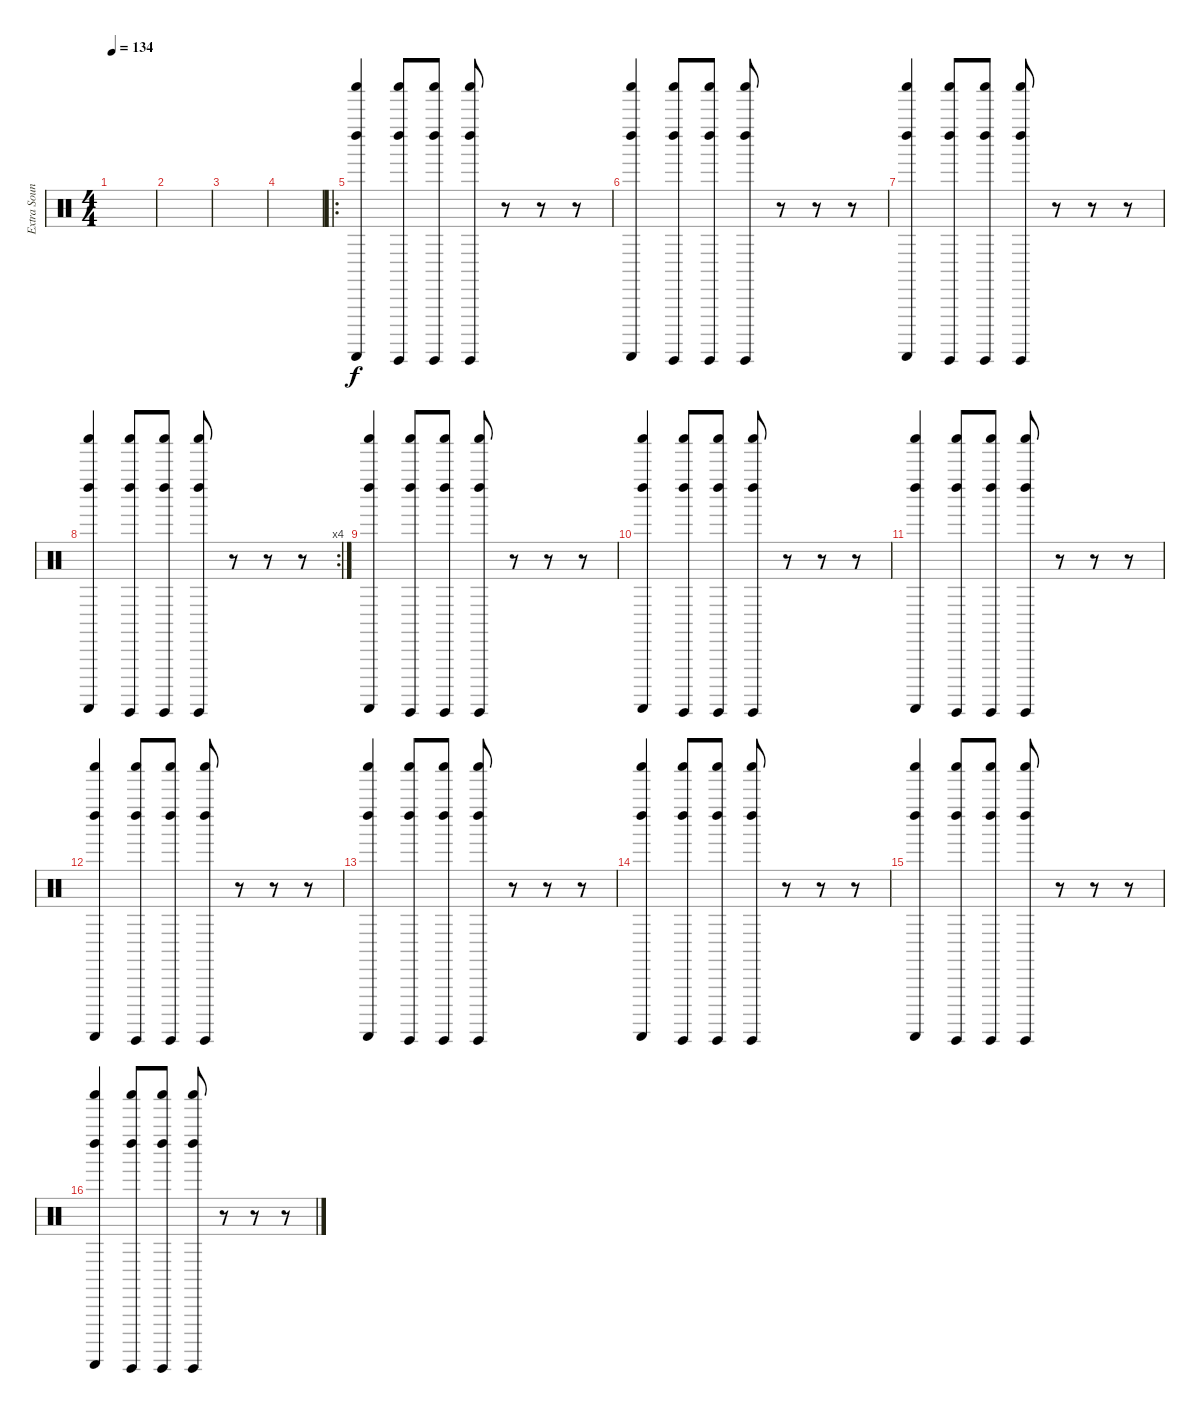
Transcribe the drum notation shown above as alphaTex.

\track ("Extra Sounds" "Extra Soun") {instrument percussion}
\staff {score}
\articulation defaults
\ts (4 4)
\tempo 134
\clef neutral
\ks c
|
|
|
|
\ro
("Shaker (hit)" "Left Maraca (hit)" "Guiro (scrap-return)").4 ("Shaker (hit)" "Left Maraca (hit)" "Guiro (hit)").8 ("Shaker (hit)" "Left Maraca (hit)" "Guiro (hit)").8 ("Shaker (hit)" "Left Maraca (hit)" "Guiro (hit)").8 r.8 r.8 r.8 |
("Shaker (hit)" "Left Maraca (hit)" "Guiro (scrap-return)").4 ("Shaker (hit)" "Left Maraca (hit)" "Guiro (hit)").8 ("Shaker (hit)" "Left Maraca (hit)" "Guiro (hit)").8 ("Shaker (hit)" "Left Maraca (hit)" "Guiro (hit)").8 r.8 r.8 r.8 |
("Shaker (hit)" "Left Maraca (hit)" "Guiro (scrap-return)").4 ("Shaker (hit)" "Left Maraca (hit)" "Guiro (hit)").8 ("Shaker (hit)" "Left Maraca (hit)" "Guiro (hit)").8 ("Shaker (hit)" "Left Maraca (hit)" "Guiro (hit)").8 r.8 r.8 r.8 |
\rc 4
("Shaker (hit)" "Left Maraca (hit)" "Guiro (scrap-return)").4 ("Shaker (hit)" "Left Maraca (hit)" "Guiro (hit)").8 ("Shaker (hit)" "Left Maraca (hit)" "Guiro (hit)").8 ("Shaker (hit)" "Left Maraca (hit)" "Guiro (hit)").8 r.8 r.8 r.8 |
("Shaker (hit)" "Left Maraca (hit)" "Guiro (scrap-return)").4 ("Shaker (hit)" "Left Maraca (hit)" "Guiro (hit)").8 ("Shaker (hit)" "Left Maraca (hit)" "Guiro (hit)").8 ("Shaker (hit)" "Left Maraca (hit)" "Guiro (hit)").8 r.8 r.8 r.8 |
("Shaker (hit)" "Left Maraca (hit)" "Guiro (scrap-return)").4 ("Shaker (hit)" "Left Maraca (hit)" "Guiro (hit)").8 ("Shaker (hit)" "Left Maraca (hit)" "Guiro (hit)").8 ("Shaker (hit)" "Left Maraca (hit)" "Guiro (hit)").8 r.8 r.8 r.8 |
("Shaker (hit)" "Left Maraca (hit)" "Guiro (scrap-return)").4 ("Shaker (hit)" "Left Maraca (hit)" "Guiro (hit)").8 ("Shaker (hit)" "Left Maraca (hit)" "Guiro (hit)").8 ("Shaker (hit)" "Left Maraca (hit)" "Guiro (hit)").8 r.8 r.8 r.8 |
("Shaker (hit)" "Left Maraca (hit)" "Guiro (scrap-return)").4 ("Shaker (hit)" "Left Maraca (hit)" "Guiro (hit)").8 ("Shaker (hit)" "Left Maraca (hit)" "Guiro (hit)").8 ("Shaker (hit)" "Left Maraca (hit)" "Guiro (hit)").8 r.8 r.8 r.8 |
("Shaker (hit)" "Left Maraca (hit)" "Guiro (scrap-return)").4 ("Shaker (hit)" "Left Maraca (hit)" "Guiro (hit)").8 ("Shaker (hit)" "Left Maraca (hit)" "Guiro (hit)").8 ("Shaker (hit)" "Left Maraca (hit)" "Guiro (hit)").8 r.8 r.8 r.8 |
("Shaker (hit)" "Left Maraca (hit)" "Guiro (scrap-return)").4 ("Shaker (hit)" "Left Maraca (hit)" "Guiro (hit)").8 ("Shaker (hit)" "Left Maraca (hit)" "Guiro (hit)").8 ("Shaker (hit)" "Left Maraca (hit)" "Guiro (hit)").8 r.8 r.8 r.8 |
("Shaker (hit)" "Left Maraca (hit)" "Guiro (scrap-return)").4 ("Shaker (hit)" "Left Maraca (hit)" "Guiro (hit)").8 ("Shaker (hit)" "Left Maraca (hit)" "Guiro (hit)").8 ("Shaker (hit)" "Left Maraca (hit)" "Guiro (hit)").8 r.8 r.8 r.8 |
("Shaker (hit)" "Left Maraca (hit)" "Guiro (scrap-return)").4 ("Shaker (hit)" "Left Maraca (hit)" "Guiro (hit)").8 ("Shaker (hit)" "Left Maraca (hit)" "Guiro (hit)").8 ("Shaker (hit)" "Left Maraca (hit)" "Guiro (hit)").8 r.8 r.8 r.8
